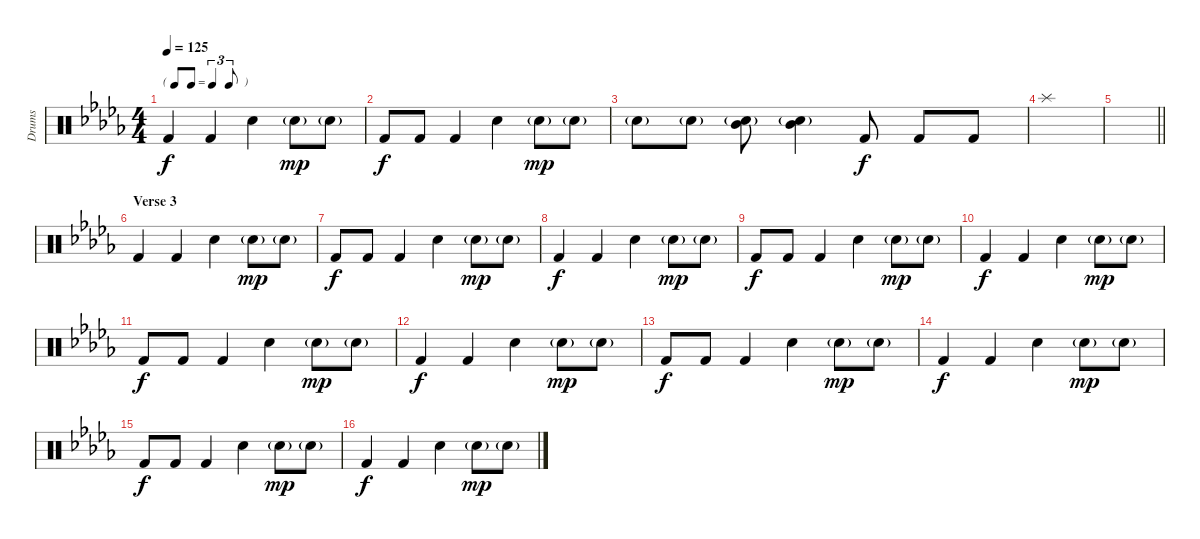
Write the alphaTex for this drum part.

\track ("Drums" "Drums") {instrument percussion}
\staff {score}
\articulation defaults
\ts (4 4)
\tf triplet8th
\tempo 125
\clef neutral
\ks db "Kick (hit) 2".4{dy f} "Kick (hit) 2".4 "Snare (hit) 2".4 "Snare (hit) 2"{g}.8{dy mp} "Snare (hit) 2"{g}.8
|
"Kick (hit) 2".8{dy f} "Kick (hit) 2".8 "Kick (hit) 2".4 "Snare (hit) 2".4 "Snare (hit) 2"{g}.8{dy mp} "Snare (hit) 2"{g}.8 |
"Snare (hit) 2"{g}.8 "Snare (hit) 2"{g}.8 ("Mid Tom (hit)" "Snare (hit) 2"{g}).8 ("Mid Tom (hit)" "Snare (hit) 2"{g}).4 "Kick (hit) 2".8{dy f} "Kick (hit) 2".8 "Kick (hit) 2".8 |
"Splash (hit)".1 |
\barLineRight lightlight
|
\section ("" "Verse 3")
"Kick (hit) 2".4 "Kick (hit) 2".4 "Snare (hit) 2".4 "Snare (hit) 2"{g}.8{dy mp} "Snare (hit) 2"{g}.8 |
"Kick (hit) 2".8{dy f} "Kick (hit) 2".8 "Kick (hit) 2".4 "Snare (hit) 2".4 "Snare (hit) 2"{g}.8{dy mp} "Snare (hit) 2"{g}.8 |
"Kick (hit) 2".4{dy f} "Kick (hit) 2".4 "Snare (hit) 2".4 "Snare (hit) 2"{g}.8{dy mp} "Snare (hit) 2"{g}.8 |
"Kick (hit) 2".8{dy f} "Kick (hit) 2".8 "Kick (hit) 2".4 "Snare (hit) 2".4 "Snare (hit) 2"{g}.8{dy mp} "Snare (hit) 2"{g}.8 |
"Kick (hit) 2".4{dy f} "Kick (hit) 2".4 "Snare (hit) 2".4 "Snare (hit) 2"{g}.8{dy mp} "Snare (hit) 2"{g}.8 |
"Kick (hit) 2".8{dy f} "Kick (hit) 2".8 "Kick (hit) 2".4 "Snare (hit) 2".4 "Snare (hit) 2"{g}.8{dy mp} "Snare (hit) 2"{g}.8 |
"Kick (hit) 2".4{dy f} "Kick (hit) 2".4 "Snare (hit) 2".4 "Snare (hit) 2"{g}.8{dy mp} "Snare (hit) 2"{g}.8 |
"Kick (hit) 2".8{dy f} "Kick (hit) 2".8 "Kick (hit) 2".4 "Snare (hit) 2".4 "Snare (hit) 2"{g}.8{dy mp} "Snare (hit) 2"{g}.8 |
"Kick (hit) 2".4{dy f} "Kick (hit) 2".4 "Snare (hit) 2".4 "Snare (hit) 2"{g}.8{dy mp} "Snare (hit) 2"{g}.8 |
"Kick (hit) 2".8{dy f} "Kick (hit) 2".8 "Kick (hit) 2".4 "Snare (hit) 2".4 "Snare (hit) 2"{g}.8{dy mp} "Snare (hit) 2"{g}.8 |
"Kick (hit) 2".4{dy f} "Kick (hit) 2".4 "Snare (hit) 2".4 "Snare (hit) 2"{g}.8{dy mp} "Snare (hit) 2"{g}.8
